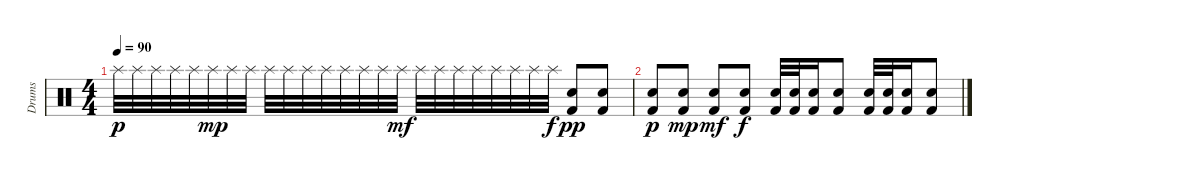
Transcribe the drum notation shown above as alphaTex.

\track ("Drums" "Drums") {instrument percussion}
\staff {score}
\articulation defaults
\ts (4 4)
\tempo 90
\clef neutral
\ks c "Splash (hit)".32{dy p} "Splash (hit)".32 "Splash (hit)".32 "Splash (hit)".32 "Splash (hit)".32 "Splash (hit)".32{dy mp} "Splash (hit)".32 "Splash (hit)".32 "Splash (hit)".32 "Splash (hit)".32 "Splash (hit)".32 "Splash (hit)".32 "Splash (hit)".32 "Splash (hit)".32 "Splash (hit)".32 "Splash (hit)".32{dy mf} "Splash (hit)".32 "Splash (hit)".32 "Splash (hit)".32 "Splash (hit)".32 "Splash (hit)".32 "Splash (hit)".32 "Splash (hit)".32 "Splash (hit)".32{dy f}
("Snare (hit) 2" "Kick (hit) 2").8{dy pp} ("Snare (hit) 2" "Kick (hit) 2").8 |
("Snare (hit) 2" "Kick (hit) 2").8{dy p} ("Snare (hit) 2" "Kick (hit) 2").8{dy mp} ("Snare (hit) 2" "Kick (hit) 2").8{dy mf} ("Snare (hit) 2" "Kick (hit) 2").8{dy f} ("Snare (hit) 2" "Kick (hit) 2").32 ("Snare (hit) 2" "Kick (hit) 2").32 ("Snare (hit) 2" "Kick (hit) 2").16 ("Snare (hit) 2" "Kick (hit) 2").8 ("Snare (hit) 2" "Kick (hit) 2").32 ("Snare (hit) 2" "Kick (hit) 2").32 ("Snare (hit) 2" "Kick (hit) 2").16 ("Snare (hit) 2" "Kick (hit) 2").8
